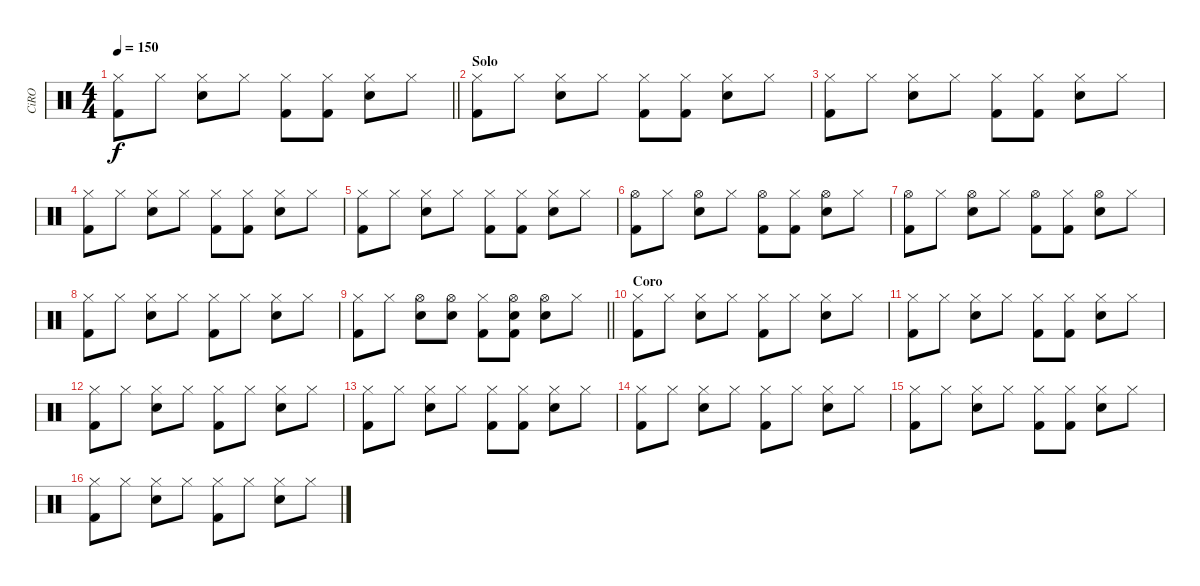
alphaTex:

\track ("CiRO" "CiRO") {instrument percussion}
\staff {score}
\articulation defaults
\ts (4 4)
\tempo 150
\clef neutral
\barLineRight lightlight
\ks c
("Hi-Hat (closed)" "Kick (hit) 2").8{dy f} "Hi-Hat (closed)".8 ("Hi-Hat (closed)" "Electric Snare (hit)").8 "Hi-Hat (closed)".8 ("Hi-Hat (closed)" "Kick (hit) 2").8 ("Hi-Hat (closed)" "Kick (hit) 2").8 ("Hi-Hat (closed)" "Electric Snare (hit)").8 "Hi-Hat (closed)".8 |
\section ("" "Solo")
("Hi-Hat (closed)" "Kick (hit) 2").8 "Hi-Hat (closed)".8 ("Hi-Hat (closed)" "Electric Snare (hit)").8 "Hi-Hat (closed)".8 ("Hi-Hat (closed)" "Kick (hit) 2").8 ("Hi-Hat (closed)" "Kick (hit) 2").8 ("Hi-Hat (closed)" "Electric Snare (hit)").8 "Hi-Hat (closed)".8 |
("Hi-Hat (closed)" "Kick (hit) 2").8 "Hi-Hat (closed)".8 ("Hi-Hat (closed)" "Electric Snare (hit)").8 "Hi-Hat (closed)".8 ("Hi-Hat (closed)" "Kick (hit) 2").8 ("Hi-Hat (closed)" "Kick (hit) 2").8 ("Hi-Hat (closed)" "Electric Snare (hit)").8 "Hi-Hat (closed)".8 |
("Hi-Hat (closed)" "Kick (hit) 2").8 "Hi-Hat (closed)".8 ("Hi-Hat (closed)" "Electric Snare (hit)").8 "Hi-Hat (closed)".8 ("Hi-Hat (closed)" "Kick (hit) 2").8 ("Hi-Hat (closed)" "Kick (hit) 2").8 ("Hi-Hat (closed)" "Electric Snare (hit)").8 "Hi-Hat (closed)".8 |
("Hi-Hat (closed)" "Kick (hit) 2").8 "Hi-Hat (closed)".8 ("Hi-Hat (closed)" "Electric Snare (hit)").8 "Hi-Hat (closed)".8 ("Hi-Hat (closed)" "Kick (hit) 2").8 ("Hi-Hat (closed)" "Kick (hit) 2").8 ("Hi-Hat (closed)" "Electric Snare (hit)").8 "Hi-Hat (closed)".8 |
("Hi-Hat (open)" "Kick (hit) 2").8 "Hi-Hat (closed)".8 ("Hi-Hat (open)" "Electric Snare (hit)").8 "Hi-Hat (closed)".8 ("Hi-Hat (open)" "Kick (hit) 2").8 ("Hi-Hat (closed)" "Kick (hit) 2").8 ("Hi-Hat (open)" "Electric Snare (hit)").8 "Hi-Hat (closed)".8 |
("Hi-Hat (open)" "Kick (hit) 2").8 "Hi-Hat (closed)".8 ("Hi-Hat (open)" "Electric Snare (hit)").8 "Hi-Hat (closed)".8 ("Hi-Hat (open)" "Kick (hit) 2").8 ("Hi-Hat (closed)" "Kick (hit) 2").8 ("Hi-Hat (open)" "Electric Snare (hit)").8 "Hi-Hat (closed)".8 |
("Hi-Hat (closed)" "Kick (hit) 2").8 "Hi-Hat (closed)".8 ("Hi-Hat (closed)" "Electric Snare (hit)").8 "Hi-Hat (closed)".8 ("Hi-Hat (closed)" "Kick (hit) 2").8 "Hi-Hat (closed)".8 ("Hi-Hat (closed)" "Electric Snare (hit)").8 "Hi-Hat (closed)".8 |
\barLineRight lightlight
("Hi-Hat (closed)" "Kick (hit) 2").8 "Hi-Hat (closed)".8 ("Hi-Hat (open)" "Electric Snare (hit)").8 ("Hi-Hat (open)" "Electric Snare (hit)").8 ("Hi-Hat (closed)" "Kick (hit) 2").8 ("Hi-Hat (open)" "Electric Snare (hit)" "Kick (hit) 2").8 ("Hi-Hat (open)" "Electric Snare (hit)").8 "Hi-Hat (closed)".8 |
\section ("" "Coro")
("Hi-Hat (closed)" "Kick (hit) 2").8 "Hi-Hat (closed)".8 ("Hi-Hat (closed)" "Electric Snare (hit)").8 "Hi-Hat (closed)".8 ("Hi-Hat (closed)" "Kick (hit) 2").8 "Hi-Hat (closed)".8 ("Hi-Hat (closed)" "Electric Snare (hit)").8 "Hi-Hat (closed)".8 |
("Hi-Hat (closed)" "Kick (hit) 2").8 "Hi-Hat (closed)".8 ("Hi-Hat (closed)" "Electric Snare (hit)").8 "Hi-Hat (closed)".8 ("Hi-Hat (closed)" "Kick (hit) 2").8 ("Hi-Hat (closed)" "Kick (hit) 2").8 ("Hi-Hat (closed)" "Electric Snare (hit)").8 "Hi-Hat (closed)".8 |
("Hi-Hat (closed)" "Kick (hit) 2").8 "Hi-Hat (closed)".8 ("Hi-Hat (closed)" "Electric Snare (hit)").8 "Hi-Hat (closed)".8 ("Hi-Hat (closed)" "Kick (hit) 2").8 "Hi-Hat (closed)".8 ("Hi-Hat (closed)" "Electric Snare (hit)").8 "Hi-Hat (closed)".8 |
("Hi-Hat (closed)" "Kick (hit) 2").8 "Hi-Hat (closed)".8 ("Hi-Hat (closed)" "Electric Snare (hit)").8 "Hi-Hat (closed)".8 ("Hi-Hat (closed)" "Kick (hit) 2").8 ("Hi-Hat (closed)" "Kick (hit) 2").8 ("Hi-Hat (closed)" "Electric Snare (hit)").8 "Hi-Hat (closed)".8 |
("Hi-Hat (closed)" "Kick (hit) 2").8 "Hi-Hat (closed)".8 ("Hi-Hat (closed)" "Electric Snare (hit)").8 "Hi-Hat (closed)".8 ("Hi-Hat (closed)" "Kick (hit) 2").8 "Hi-Hat (closed)".8 ("Hi-Hat (closed)" "Electric Snare (hit)").8 "Hi-Hat (closed)".8 |
("Hi-Hat (closed)" "Kick (hit) 2").8 "Hi-Hat (closed)".8 ("Hi-Hat (closed)" "Electric Snare (hit)").8 "Hi-Hat (closed)".8 ("Hi-Hat (closed)" "Kick (hit) 2").8 ("Hi-Hat (closed)" "Kick (hit) 2").8 ("Hi-Hat (closed)" "Electric Snare (hit)").8 "Hi-Hat (closed)".8 |
("Hi-Hat (closed)" "Kick (hit) 2").8 "Hi-Hat (closed)".8 ("Hi-Hat (closed)" "Electric Snare (hit)").8 "Hi-Hat (closed)".8 ("Hi-Hat (closed)" "Kick (hit) 2").8 "Hi-Hat (closed)".8 ("Hi-Hat (closed)" "Electric Snare (hit)").8 "Hi-Hat (closed)".8
